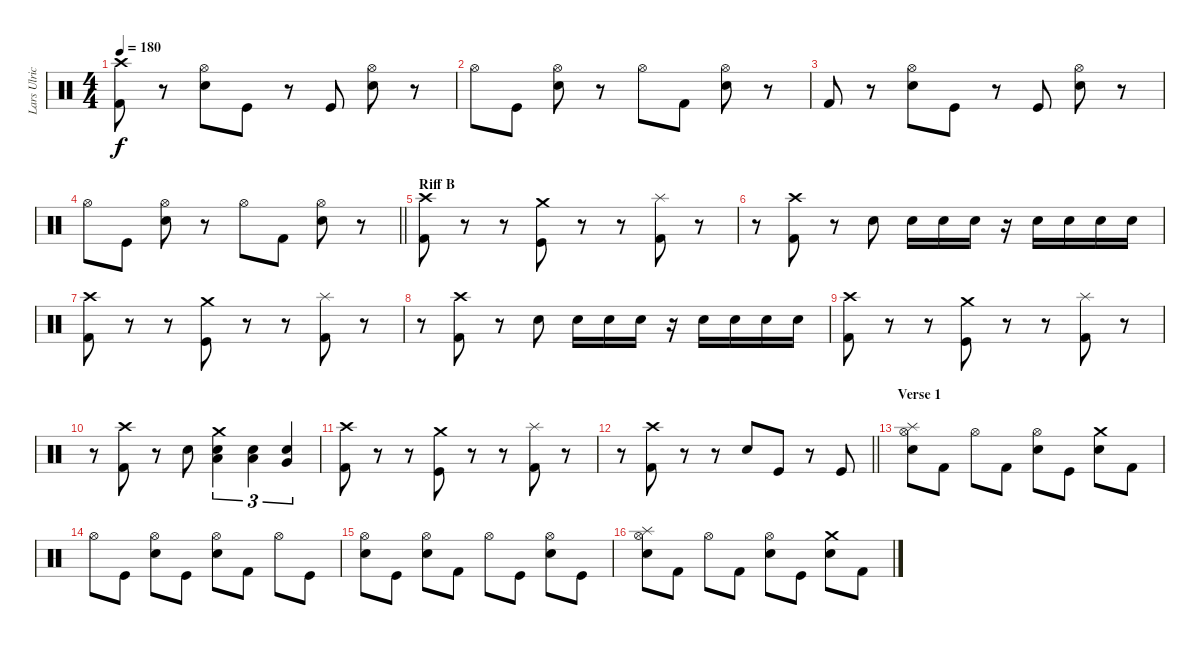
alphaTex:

\track ("Lars Ulrich" "Lars Ulric") {instrument percussion}
\staff {score}
\articulation defaults
\ts (4 4)
\tempo 180
\clef neutral
\ks c
("Crash high (hit)" "Kick (hit) 2").8{dy f} r.8 ("Hi-Hat (open)" "Electric Snare (hit)").8 "Kick (hit)".8 r.8 "Kick (hit)".8 ("Hi-Hat (open)" "Electric Snare (hit)").8 r.8 |
"Hi-Hat (open)".8 "Kick (hit)".8 ("Hi-Hat (open)" "Electric Snare (hit)").8 r.8 "Hi-Hat (open)".8 "Kick (hit) 2".8 ("Hi-Hat (open)" "Electric Snare (hit)").8 r.8 |
"Kick (hit) 2".8 r.8 ("Hi-Hat (open)" "Electric Snare (hit)").8 "Kick (hit)".8 r.8 "Kick (hit)".8 ("Hi-Hat (open)" "Electric Snare (hit)").8 r.8 |
\barLineRight lightlight "Hi-Hat (open)".8 "Kick (hit)".8
("Hi-Hat (open)" "Electric Snare (hit)").8 r.8 "Hi-Hat (open)".8 "Kick (hit) 2".8 ("Hi-Hat (open)" "Electric Snare (hit)").8 r.8 |
\section ("" "Riff B")
("Crash high (hit)" "Kick (hit) 2").8 r.8 r.8 ("Crash medium (hit)" "Kick (hit)").8 r.8 r.8 ("Splash (hit)" "Kick (hit) 2").8 r.8 |
r.8 ("Crash high (hit)" "Kick (hit) 2").8 r.8 "Electric Snare (hit)".8 "Electric Snare (hit)".16 "Electric Snare (hit)".16 "Electric Snare (hit)".16 r.16 "Electric Snare (hit)".16 "Electric Snare (hit)".16 "Electric Snare (hit)".16 "Electric Snare (hit)".16 |
("Crash high (hit)" "Kick (hit) 2").8 r.8 r.8 ("Crash medium (hit)" "Kick (hit)").8 r.8 r.8 ("Splash (hit)" "Kick (hit) 2").8 r.8 |
r.8 ("Crash high (hit)" "Kick (hit) 2").8 r.8 "Electric Snare (hit)".8 "Electric Snare (hit)".16 "Electric Snare (hit)".16 "Electric Snare (hit)".16 r.16 "Electric Snare (hit)".16 "Electric Snare (hit)".16 "Electric Snare (hit)".16 "Electric Snare (hit)".16 |
("Crash high (hit)" "Kick (hit) 2").8 r.8 r.8 ("Crash medium (hit)" "Kick (hit)").8 r.8 r.8 ("Splash (hit)" "Kick (hit) 2").8 r.8 |
r.8 ("Crash high (hit)" "Kick (hit) 2").8 r.8 "Electric Snare (hit)".8 ("Low Tom (hit)" "Crash medium (hit)" "Electric Snare (hit)").4{tu (3 2)} ("Low Tom (hit)" "Electric Snare (hit)").4{tu (3 2)} ("Very Low Tom (hit)" "Electric Snare (hit)").4{tu (3 2)} |
("Crash high (hit)" "Kick (hit) 2").8 r.8 r.8 ("Crash medium (hit)" "Kick (hit)").8 r.8 r.8 ("Splash (hit)" "Kick (hit) 2").8 r.8 |
\barLineRight lightlight
r.8 ("Crash high (hit)" "Kick (hit) 2").8 r.8 r.8 "Electric Snare (hit)".8 "Kick (hit)".8 r.8 "Kick (hit)".8 |
\section ("" "Verse 1 ")
("Splash (hit)" "Hi-Hat (open)" "Electric Snare (hit)").8 "Kick (hit) 2".8 "Hi-Hat (open)".8 "Kick (hit) 2".8 ("Hi-Hat (open)" "Electric Snare (hit)").8 "Kick (hit)".8 ("Crash medium (hit)" "Electric Snare (hit)").8 "Kick (hit) 2".8 |
"Hi-Hat (open)".8 "Kick (hit)".8 ("Hi-Hat (open)" "Electric Snare (hit)").8 "Kick (hit)".8 ("Hi-Hat (open)" "Electric Snare (hit)").8 "Kick (hit) 2".8 "Hi-Hat (open)".8 "Kick (hit)".8 |
("Hi-Hat (open)" "Electric Snare (hit)").8 "Kick (hit)".8 ("Hi-Hat (open)" "Electric Snare (hit)").8 "Kick (hit) 2".8 "Hi-Hat (open)".8 "Kick (hit)".8 ("Hi-Hat (open)" "Electric Snare (hit)").8 "Kick (hit)".8 |
("Splash (hit)" "Hi-Hat (open)" "Electric Snare (hit)").8 "Kick (hit) 2".8 "Hi-Hat (open)".8 "Kick (hit) 2".8 ("Hi-Hat (open)" "Electric Snare (hit)").8 "Kick (hit)".8 ("Crash medium (hit)" "Electric Snare (hit)").8 "Kick (hit) 2".8
